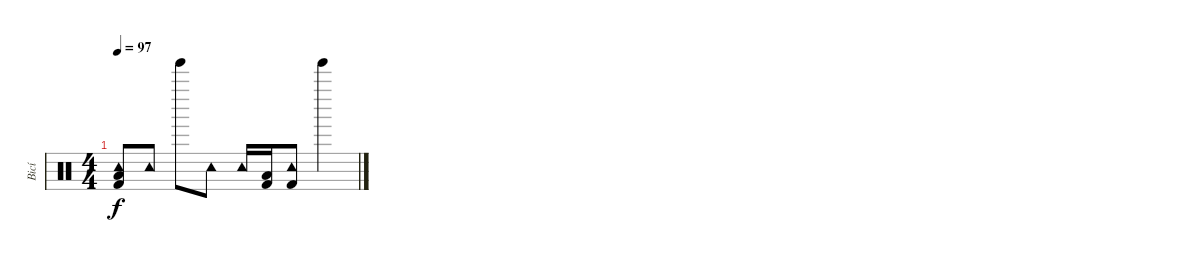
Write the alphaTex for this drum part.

\track ("Bicí" "Bicí") {instrument percussion}
\staff {score}
\articulation defaults
\ts (4 4)
\tempo 97
\clef neutral
\ks c
("Tambourine (hit)" "Low Floor Tom (hit)" "Kick (hit) 2").8{dy f} "Tambourine (hit)".8 "Tinkle Bell (hit)".8 "Tambourine (hit)".8 "Tambourine (hit)".16 ("Low Floor Tom (hit)" "Kick (hit) 2").16 ("Tambourine (hit)" "Kick (hit) 2").8 "Tinkle Bell (hit)".4
